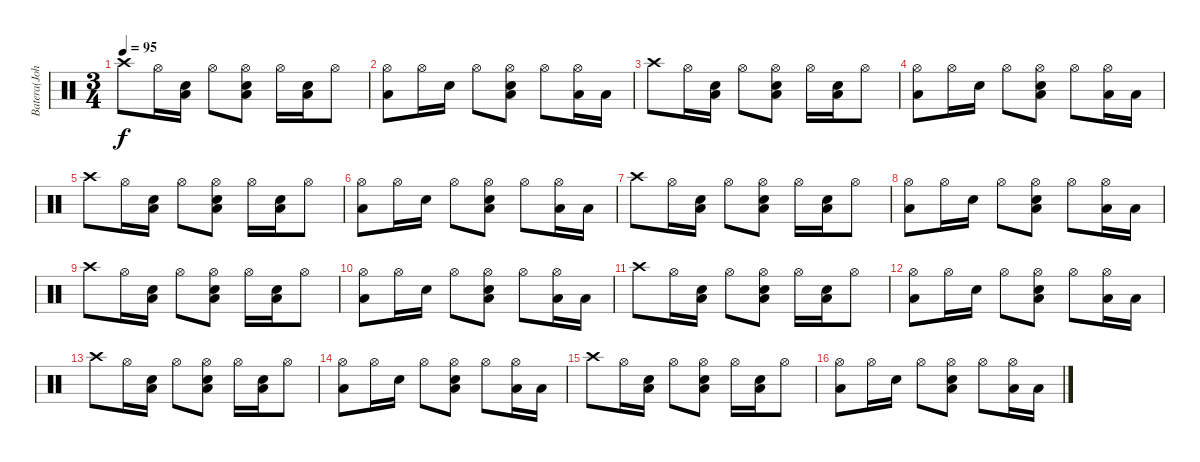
\track ("Batera(John)" "Batera(Joh") {instrument percussion}
\staff {score}
\articulation defaults
\ts (3 4)
\tempo 95
\clef neutral
\ks c "Crash high (hit)".8{dy f} "Hi-Hat (open)".16
("Snare (hit) 2" "Low Tom (hit)").16 "Hi-Hat (open)".8 ("Hi-Hat (open)" "Snare (hit) 2" "Low Tom (hit)").8 "Hi-Hat (open)".16 ("Snare (hit) 2" "Low Tom (hit)").16 "Hi-Hat (open)".8 |
("Hi-Hat (open)" "Low Tom (hit)").8 "Hi-Hat (open)".16 "Snare (hit) 2".16 "Hi-Hat (open)".8 ("Hi-Hat (open)" "Snare (hit) 2" "Low Tom (hit)").8 "Hi-Hat (open)".8 ("Hi-Hat (open)" "Low Tom (hit)").16 "Low Tom (hit)".16 |
"Crash high (hit)".8 "Hi-Hat (open)".16 ("Snare (hit) 2" "Low Tom (hit)").16 "Hi-Hat (open)".8 ("Hi-Hat (open)" "Snare (hit) 2" "Low Tom (hit)").8 "Hi-Hat (open)".16 ("Snare (hit) 2" "Low Tom (hit)").16 "Hi-Hat (open)".8 |
("Hi-Hat (open)" "Low Tom (hit)").8 "Hi-Hat (open)".16 "Snare (hit) 2".16 "Hi-Hat (open)".8 ("Hi-Hat (open)" "Snare (hit) 2" "Low Tom (hit)").8 "Hi-Hat (open)".8 ("Hi-Hat (open)" "Low Tom (hit)").16 "Low Tom (hit)".16 |
"Crash high (hit)".8 "Hi-Hat (open)".16 ("Snare (hit) 2" "Low Tom (hit)").16 "Hi-Hat (open)".8 ("Hi-Hat (open)" "Snare (hit) 2" "Low Tom (hit)").8 "Hi-Hat (open)".16 ("Snare (hit) 2" "Low Tom (hit)").16 "Hi-Hat (open)".8 |
("Hi-Hat (open)" "Low Tom (hit)").8 "Hi-Hat (open)".16 "Snare (hit) 2".16 "Hi-Hat (open)".8 ("Hi-Hat (open)" "Snare (hit) 2" "Low Tom (hit)").8 "Hi-Hat (open)".8 ("Hi-Hat (open)" "Low Tom (hit)").16 "Low Tom (hit)".16 |
"Crash high (hit)".8 "Hi-Hat (open)".16 ("Snare (hit) 2" "Low Tom (hit)").16 "Hi-Hat (open)".8 ("Hi-Hat (open)" "Snare (hit) 2" "Low Tom (hit)").8 "Hi-Hat (open)".16 ("Snare (hit) 2" "Low Tom (hit)").16 "Hi-Hat (open)".8 |
("Hi-Hat (open)" "Low Tom (hit)").8 "Hi-Hat (open)".16 "Snare (hit) 2".16 "Hi-Hat (open)".8 ("Hi-Hat (open)" "Snare (hit) 2" "Low Tom (hit)").8 "Hi-Hat (open)".8 ("Hi-Hat (open)" "Low Tom (hit)").16 "Low Tom (hit)".16 |
"Crash high (hit)".8 "Hi-Hat (open)".16 ("Snare (hit) 2" "Low Tom (hit)").16 "Hi-Hat (open)".8 ("Hi-Hat (open)" "Snare (hit) 2" "Low Tom (hit)").8 "Hi-Hat (open)".16 ("Snare (hit) 2" "Low Tom (hit)").16 "Hi-Hat (open)".8 |
("Hi-Hat (open)" "Low Tom (hit)").8 "Hi-Hat (open)".16 "Snare (hit) 2".16 "Hi-Hat (open)".8 ("Hi-Hat (open)" "Snare (hit) 2" "Low Tom (hit)").8 "Hi-Hat (open)".8 ("Hi-Hat (open)" "Low Tom (hit)").16 "Low Tom (hit)".16 |
"Crash high (hit)".8 "Hi-Hat (open)".16 ("Snare (hit) 2" "Low Tom (hit)").16 "Hi-Hat (open)".8 ("Hi-Hat (open)" "Snare (hit) 2" "Low Tom (hit)").8 "Hi-Hat (open)".16 ("Snare (hit) 2" "Low Tom (hit)").16 "Hi-Hat (open)".8 |
("Hi-Hat (open)" "Low Tom (hit)").8 "Hi-Hat (open)".16 "Snare (hit) 2".16 "Hi-Hat (open)".8 ("Hi-Hat (open)" "Snare (hit) 2" "Low Tom (hit)").8 "Hi-Hat (open)".8 ("Hi-Hat (open)" "Low Tom (hit)").16 "Low Tom (hit)".16 |
"Crash high (hit)".8 "Hi-Hat (open)".16 ("Snare (hit) 2" "Low Tom (hit)").16 "Hi-Hat (open)".8 ("Hi-Hat (open)" "Snare (hit) 2" "Low Tom (hit)").8 "Hi-Hat (open)".16 ("Snare (hit) 2" "Low Tom (hit)").16 "Hi-Hat (open)".8 |
("Hi-Hat (open)" "Low Tom (hit)").8 "Hi-Hat (open)".16 "Snare (hit) 2".16 "Hi-Hat (open)".8 ("Hi-Hat (open)" "Snare (hit) 2" "Low Tom (hit)").8 "Hi-Hat (open)".8 ("Hi-Hat (open)" "Low Tom (hit)").16 "Low Tom (hit)".16 |
"Crash high (hit)".8 "Hi-Hat (open)".16 ("Snare (hit) 2" "Low Tom (hit)").16 "Hi-Hat (open)".8 ("Hi-Hat (open)" "Snare (hit) 2" "Low Tom (hit)").8 "Hi-Hat (open)".16 ("Snare (hit) 2" "Low Tom (hit)").16 "Hi-Hat (open)".8 |
("Hi-Hat (open)" "Low Tom (hit)").8 "Hi-Hat (open)".16 "Snare (hit) 2".16 "Hi-Hat (open)".8 ("Hi-Hat (open)" "Snare (hit) 2" "Low Tom (hit)").8 "Hi-Hat (open)".8 ("Hi-Hat (open)" "Low Tom (hit)").16 "Low Tom (hit)".16
